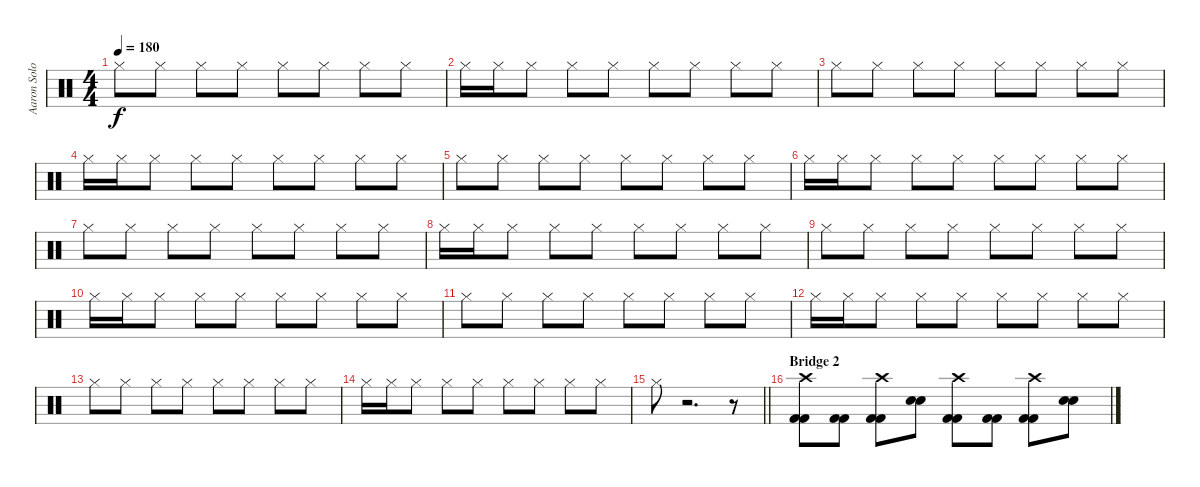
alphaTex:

\track ("Aaron Solowoniuk" "Aaron Solo") {instrument percussion}
\staff {score}
\articulation defaults
\ts (4 4)
\tempo 180
\clef neutral
\ks c "Hi-Hat (closed)".8{dy f} "Hi-Hat (closed)".8 "Hi-Hat (closed)".8 "Hi-Hat (closed)".8 "Hi-Hat (closed)".8 "Hi-Hat (closed)".8 "Hi-Hat (closed)".8 "Hi-Hat (closed)".8
|
"Hi-Hat (closed)".16 "Hi-Hat (closed)".16 "Hi-Hat (closed)".8 "Hi-Hat (closed)".8 "Hi-Hat (closed)".8 "Hi-Hat (closed)".8 "Hi-Hat (closed)".8 "Hi-Hat (closed)".8 "Hi-Hat (closed)".8 |
"Hi-Hat (closed)".8 "Hi-Hat (closed)".8 "Hi-Hat (closed)".8 "Hi-Hat (closed)".8 "Hi-Hat (closed)".8 "Hi-Hat (closed)".8 "Hi-Hat (closed)".8 "Hi-Hat (closed)".8 |
"Hi-Hat (closed)".16 "Hi-Hat (closed)".16 "Hi-Hat (closed)".8 "Hi-Hat (closed)".8 "Hi-Hat (closed)".8 "Hi-Hat (closed)".8 "Hi-Hat (closed)".8 "Hi-Hat (closed)".8 "Hi-Hat (closed)".8 |
"Hi-Hat (closed)".8 "Hi-Hat (closed)".8 "Hi-Hat (closed)".8 "Hi-Hat (closed)".8 "Hi-Hat (closed)".8 "Hi-Hat (closed)".8 "Hi-Hat (closed)".8 "Hi-Hat (closed)".8 |
"Hi-Hat (closed)".16 "Hi-Hat (closed)".16 "Hi-Hat (closed)".8 "Hi-Hat (closed)".8 "Hi-Hat (closed)".8 "Hi-Hat (closed)".8 "Hi-Hat (closed)".8 "Hi-Hat (closed)".8 "Hi-Hat (closed)".8 |
"Hi-Hat (closed)".8 "Hi-Hat (closed)".8 "Hi-Hat (closed)".8 "Hi-Hat (closed)".8 "Hi-Hat (closed)".8 "Hi-Hat (closed)".8 "Hi-Hat (closed)".8 "Hi-Hat (closed)".8 |
"Hi-Hat (closed)".16 "Hi-Hat (closed)".16 "Hi-Hat (closed)".8 "Hi-Hat (closed)".8 "Hi-Hat (closed)".8 "Hi-Hat (closed)".8 "Hi-Hat (closed)".8 "Hi-Hat (closed)".8 "Hi-Hat (closed)".8 |
"Hi-Hat (closed)".8 "Hi-Hat (closed)".8 "Hi-Hat (closed)".8 "Hi-Hat (closed)".8 "Hi-Hat (closed)".8 "Hi-Hat (closed)".8 "Hi-Hat (closed)".8 "Hi-Hat (closed)".8 |
"Hi-Hat (closed)".16 "Hi-Hat (closed)".16 "Hi-Hat (closed)".8 "Hi-Hat (closed)".8 "Hi-Hat (closed)".8 "Hi-Hat (closed)".8 "Hi-Hat (closed)".8 "Hi-Hat (closed)".8 "Hi-Hat (closed)".8 |
"Hi-Hat (closed)".8 "Hi-Hat (closed)".8 "Hi-Hat (closed)".8 "Hi-Hat (closed)".8 "Hi-Hat (closed)".8 "Hi-Hat (closed)".8 "Hi-Hat (closed)".8 "Hi-Hat (closed)".8 |
"Hi-Hat (closed)".16 "Hi-Hat (closed)".16 "Hi-Hat (closed)".8 "Hi-Hat (closed)".8 "Hi-Hat (closed)".8 "Hi-Hat (closed)".8 "Hi-Hat (closed)".8 "Hi-Hat (closed)".8 "Hi-Hat (closed)".8 |
"Hi-Hat (closed)".8 "Hi-Hat (closed)".8 "Hi-Hat (closed)".8 "Hi-Hat (closed)".8 "Hi-Hat (closed)".8 "Hi-Hat (closed)".8 "Hi-Hat (closed)".8 "Hi-Hat (closed)".8 |
"Hi-Hat (closed)".16 "Hi-Hat (closed)".16 "Hi-Hat (closed)".8 "Hi-Hat (closed)".8 "Hi-Hat (closed)".8 "Hi-Hat (closed)".8 "Hi-Hat (closed)".8 "Hi-Hat (closed)".8 "Hi-Hat (closed)".8 |
\barLineRight lightlight "Hi-Hat (closed)".8
r.2{d} r.8 |
\section ("" "Bridge 2")
("Crash high (hit)" "Kick (hit) 2" "Kick (hit) 2").8 ("Kick (hit) 2" "Kick (hit) 2").8 ("Crash high (hit)" "Kick (hit) 2" "Kick (hit) 2").8 ("Electric Snare (hit)" "Electric Snare (hit)").8 ("Crash high (hit)" "Kick (hit) 2" "Kick (hit) 2").8 ("Kick (hit) 2" "Kick (hit) 2").8 ("Crash high (hit)" "Kick (hit) 2" "Kick (hit) 2").8 ("Electric Snare (hit)" "Electric Snare (hit)").8
